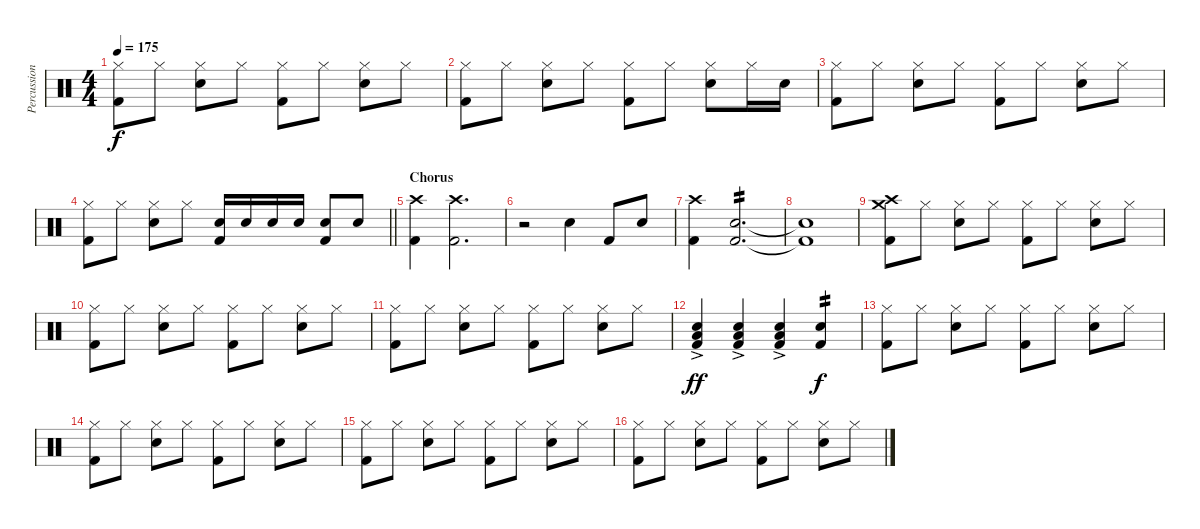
\track ("Percussion" "Percussion") {instrument percussion}
\staff {score}
\articulation defaults
\ts (4 4)
\tempo 175
\clef neutral
\ks c
("Hi-Hat (closed)" "Kick (hit) 2").8{dy f} "Hi-Hat (closed)".8 ("Hi-Hat (closed)" "Snare (hit) 2").8 "Hi-Hat (closed)".8 ("Hi-Hat (closed)" "Kick (hit) 2").8 "Hi-Hat (closed)".8 ("Hi-Hat (closed)" "Snare (hit) 2").8 "Hi-Hat (closed)".8 |
("Hi-Hat (closed)" "Kick (hit) 2").8 "Hi-Hat (closed)".8 ("Hi-Hat (closed)" "Snare (hit) 2").8 "Hi-Hat (closed)".8 ("Hi-Hat (closed)" "Kick (hit) 2").8 "Hi-Hat (closed)".8 ("Hi-Hat (closed)" "Snare (hit) 2").8 "Hi-Hat (closed)".16 "Snare (hit) 2".16 |
("Hi-Hat (closed)" "Kick (hit) 2").8 "Hi-Hat (closed)".8 ("Hi-Hat (closed)" "Snare (hit) 2").8 "Hi-Hat (closed)".8 ("Hi-Hat (closed)" "Kick (hit) 2").8 "Hi-Hat (closed)".8 ("Hi-Hat (closed)" "Snare (hit) 2").8 "Hi-Hat (closed)".8 |
\barLineRight lightlight
("Hi-Hat (closed)" "Kick (hit) 2").8 "Hi-Hat (closed)".8 ("Hi-Hat (closed)" "Snare (hit) 2").8 "Hi-Hat (closed)".8 ("Snare (hit) 2" "Kick (hit) 2").16 "Snare (hit) 2".16 "Snare (hit) 2".16 "Snare (hit) 2".16 ("Snare (hit) 2" "Kick (hit) 2").8 "Snare (hit) 2".8 |
\section ("" "Chorus")
("Crash high (hit)" "Kick (hit) 2").4 ("Crash high (hit)" "Kick (hit) 2").2{d} |
r.2 "Snare (hit) 2".4 "Kick (hit) 2".8 "Snare (hit) 2".8 |
("Crash high (hit)" "Kick (hit) 2").4 ("Snare (hit) 2" "Kick (hit) 2").2{d tp 2} |
("Snare (hit) 2"{t} "Kick (hit) 2"{t}).1 |
("Crash high (hit)" "Crash medium (hit)" "Kick (hit) 2").8 "Hi-Hat (closed)".8 ("Hi-Hat (closed)" "Snare (hit) 2").8 "Hi-Hat (closed)".8 ("Hi-Hat (closed)" "Kick (hit) 2").8 "Hi-Hat (closed)".8 ("Hi-Hat (closed)" "Snare (hit) 2").8 "Hi-Hat (closed)".8 |
("Hi-Hat (closed)" "Kick (hit) 2").8 "Hi-Hat (closed)".8 ("Hi-Hat (closed)" "Snare (hit) 2").8 "Hi-Hat (closed)".8 ("Hi-Hat (closed)" "Kick (hit) 2").8 "Hi-Hat (closed)".8 ("Hi-Hat (closed)" "Snare (hit) 2").8 "Hi-Hat (closed)".8 |
("Hi-Hat (closed)" "Kick (hit) 2").8 "Hi-Hat (closed)".8 ("Hi-Hat (closed)" "Snare (hit) 2").8 "Hi-Hat (closed)".8 ("Hi-Hat (closed)" "Kick (hit) 2").8 "Hi-Hat (closed)".8 ("Hi-Hat (closed)" "Snare (hit) 2").8 "Hi-Hat (closed)".8 |
("Snare (hit) 2"{ac} "Low Floor Tom (hit)" "Kick (hit) 2"{ac}).4{dy ff} ("Snare (hit) 2"{ac} "Low Floor Tom (hit)" "Kick (hit) 2"{ac}).4 ("Snare (hit) 2"{ac} "Low Floor Tom (hit)" "Kick (hit) 2"{ac}).4 ("Snare (hit) 2" "Kick (hit) 2").4{tp 2 dy f} |
("Hi-Hat (closed)" "Kick (hit) 2").8 "Hi-Hat (closed)".8 ("Hi-Hat (closed)" "Snare (hit) 2").8 "Hi-Hat (closed)".8 ("Hi-Hat (closed)" "Kick (hit) 2").8 "Hi-Hat (closed)".8 ("Hi-Hat (closed)" "Snare (hit) 2").8 "Hi-Hat (closed)".8 |
("Hi-Hat (closed)" "Kick (hit) 2").8 "Hi-Hat (closed)".8 ("Hi-Hat (closed)" "Snare (hit) 2").8 "Hi-Hat (closed)".8 ("Hi-Hat (closed)" "Kick (hit) 2").8 "Hi-Hat (closed)".8 ("Hi-Hat (closed)" "Snare (hit) 2").8 "Hi-Hat (closed)".8 |
("Hi-Hat (closed)" "Kick (hit) 2").8 "Hi-Hat (closed)".8 ("Hi-Hat (closed)" "Snare (hit) 2").8 "Hi-Hat (closed)".8 ("Hi-Hat (closed)" "Kick (hit) 2").8 "Hi-Hat (closed)".8 ("Hi-Hat (closed)" "Snare (hit) 2").8 "Hi-Hat (closed)".8 |
("Hi-Hat (closed)" "Kick (hit) 2").8 "Hi-Hat (closed)".8 ("Hi-Hat (closed)" "Snare (hit) 2").8 "Hi-Hat (closed)".8 ("Hi-Hat (closed)" "Kick (hit) 2").8 "Hi-Hat (closed)".8 ("Hi-Hat (closed)" "Snare (hit) 2").8 "Hi-Hat (closed)".8
